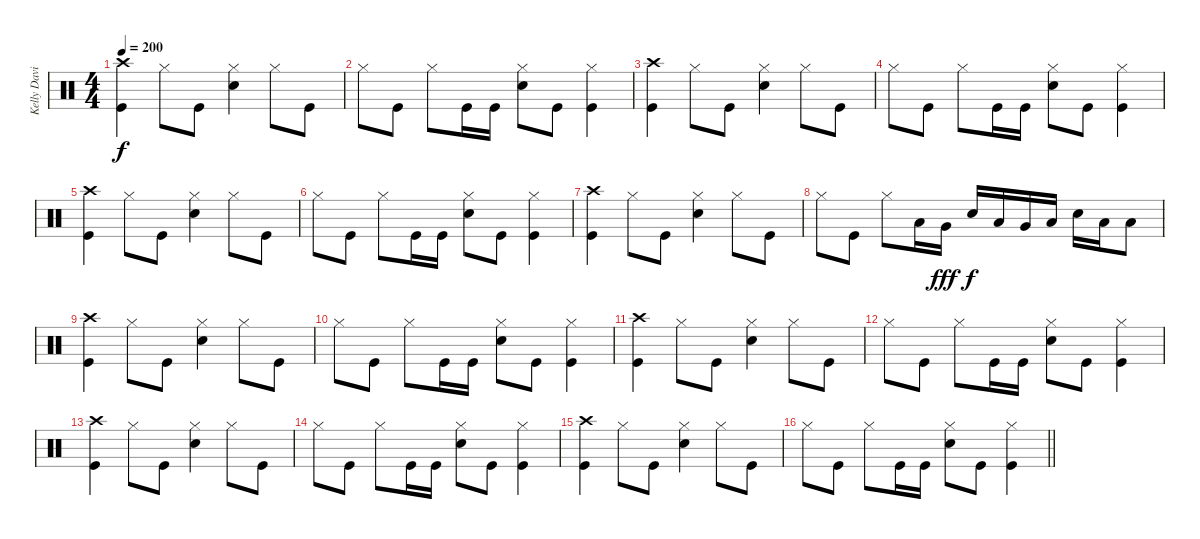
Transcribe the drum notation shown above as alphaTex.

\track ("Kelly David Smith" "Kelly Davi") {instrument percussion}
\staff {score}
\articulation defaults
\ts (4 4)
\tempo 200
\clef neutral
\ks c
("Crash high (hit)" "Kick (hit)").4{dy f} "Hi-Hat (closed)".8 "Kick (hit)".8 ("Hi-Hat (closed)" "Electric Snare (hit)").4 "Hi-Hat (closed)".8 "Kick (hit)".8 |
"Hi-Hat (closed)".8 "Kick (hit)".8 "Hi-Hat (closed)".8 "Kick (hit)".16 "Kick (hit)".16 ("Hi-Hat (closed)" "Electric Snare (hit)").8 "Kick (hit)".8 ("Hi-Hat (closed)" "Kick (hit)").4 |
("Crash high (hit)" "Kick (hit)").4 "Hi-Hat (closed)".8 "Kick (hit)".8 ("Hi-Hat (closed)" "Electric Snare (hit)").4 "Hi-Hat (closed)".8 "Kick (hit)".8 |
"Hi-Hat (closed)".8 "Kick (hit)".8 "Hi-Hat (closed)".8 "Kick (hit)".16 "Kick (hit)".16 ("Hi-Hat (closed)" "Electric Snare (hit)").8 "Kick (hit)".8 ("Hi-Hat (closed)" "Kick (hit)").4 |
("Crash high (hit)" "Kick (hit)").4 "Hi-Hat (closed)".8 "Kick (hit)".8 ("Hi-Hat (closed)" "Electric Snare (hit)").4 "Hi-Hat (closed)".8 "Kick (hit)".8 |
"Hi-Hat (closed)".8 "Kick (hit)".8 "Hi-Hat (closed)".8 "Kick (hit)".16 "Kick (hit)".16 ("Hi-Hat (closed)" "Electric Snare (hit)").8 "Kick (hit)".8 ("Hi-Hat (closed)" "Kick (hit)").4 |
("Crash high (hit)" "Kick (hit)").4 "Hi-Hat (closed)".8 "Kick (hit)".8 ("Hi-Hat (closed)" "Electric Snare (hit)").4 "Hi-Hat (closed)".8 "Kick (hit)".8 |
"Hi-Hat (closed)".8 "Kick (hit)".8 "Hi-Hat (closed)".8 "Low Tom (hit)".16 "Very Low Tom (hit)".16{dy fff} "Electric Snare (hit)".16{dy f} "Low Tom (hit)".16 "Very Low Tom (hit)".16 "Low Floor Tom (hit)".16 "Electric Snare (hit)".16 "Low Floor Tom (hit)".16 "Low Floor Tom (hit)".8 |
("Crash high (hit)" "Kick (hit)").4 "Hi-Hat (closed)".8 "Kick (hit)".8 ("Hi-Hat (closed)" "Electric Snare (hit)").4 "Hi-Hat (closed)".8 "Kick (hit)".8 |
"Hi-Hat (closed)".8 "Kick (hit)".8 "Hi-Hat (closed)".8 "Kick (hit)".16 "Kick (hit)".16 ("Hi-Hat (closed)" "Electric Snare (hit)").8 "Kick (hit)".8 ("Hi-Hat (closed)" "Kick (hit)").4 |
("Crash high (hit)" "Kick (hit)").4 "Hi-Hat (closed)".8 "Kick (hit)".8 ("Hi-Hat (closed)" "Electric Snare (hit)").4 "Hi-Hat (closed)".8 "Kick (hit)".8 |
"Hi-Hat (closed)".8 "Kick (hit)".8 "Hi-Hat (closed)".8 "Kick (hit)".16 "Kick (hit)".16 ("Hi-Hat (closed)" "Electric Snare (hit)").8 "Kick (hit)".8 ("Hi-Hat (closed)" "Kick (hit)").4 |
("Crash high (hit)" "Kick (hit)").4 "Hi-Hat (closed)".8 "Kick (hit)".8 ("Hi-Hat (closed)" "Electric Snare (hit)").4 "Hi-Hat (closed)".8 "Kick (hit)".8 |
"Hi-Hat (closed)".8 "Kick (hit)".8 "Hi-Hat (closed)".8 "Kick (hit)".16 "Kick (hit)".16 ("Hi-Hat (closed)" "Electric Snare (hit)").8 "Kick (hit)".8 ("Hi-Hat (closed)" "Kick (hit)").4 |
("Crash high (hit)" "Kick (hit)").4 "Hi-Hat (closed)".8 "Kick (hit)".8 ("Hi-Hat (closed)" "Electric Snare (hit)").4 "Hi-Hat (closed)".8 "Kick (hit)".8 |
\barLineRight lightlight "Hi-Hat (closed)".8 "Kick (hit)".8 "Hi-Hat (closed)".8 "Kick (hit)".16 "Kick (hit)".16
("Hi-Hat (closed)" "Electric Snare (hit)").8 "Kick (hit)".8 ("Hi-Hat (closed)" "Kick (hit)").4
